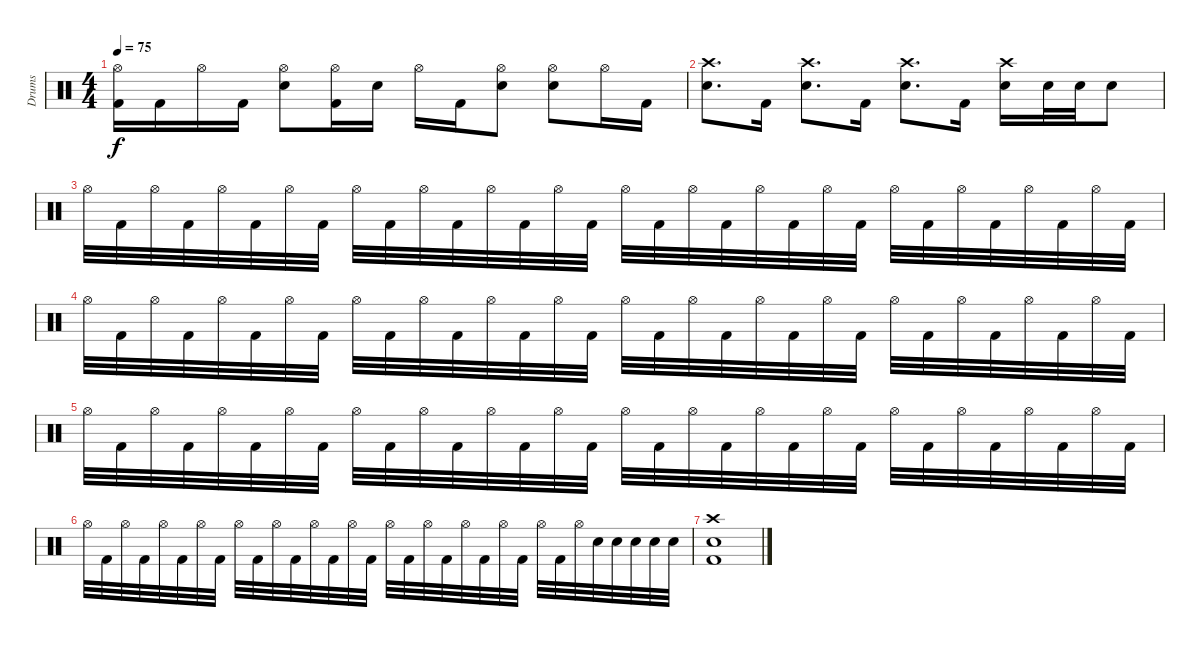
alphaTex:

\track ("Drums" "Drums") {instrument percussion}
\staff {score}
\articulation defaults
\ts (4 4)
\tempo 75
\clef neutral
\ks c
("Hi-Hat (open)" "Kick (hit) 2").16{dy f} "Kick (hit) 2".16 "Hi-Hat (open)".16 "Kick (hit) 2".16 ("Hi-Hat (open)" "Snare (hit) 2").8 ("Hi-Hat (open)" "Kick (hit) 2").16 "Snare (hit) 2".16 "Hi-Hat (open)".16 "Kick (hit) 2".16 ("Hi-Hat (open)" "Snare (hit) 2").8 ("Hi-Hat (open)" "Snare (hit) 2").8 "Hi-Hat (open)".16 "Kick (hit) 2".16 |
("Crash high (hit)" "Snare (hit) 2").8{d} "Kick (hit) 2".16 ("Crash high (hit)" "Snare (hit) 2").8{d} "Kick (hit) 2".16 ("Crash high (hit)" "Snare (hit) 2").8{d} "Kick (hit) 2".16 ("Crash high (hit)" "Snare (hit) 2").16 "Snare (hit) 2".32 "Snare (hit) 2".32 "Snare (hit) 2".8 |
"Hi-Hat (open)".32 "Kick (hit) 2".32 "Hi-Hat (open)".32 "Kick (hit) 2".32 "Hi-Hat (open)".32 "Kick (hit) 2".32 "Hi-Hat (open)".32 "Kick (hit) 2".32 "Hi-Hat (open)".32 "Kick (hit) 2".32 "Hi-Hat (open)".32 "Kick (hit) 2".32 "Hi-Hat (open)".32 "Kick (hit) 2".32 "Hi-Hat (open)".32 "Kick (hit) 2".32 "Hi-Hat (open)".32 "Kick (hit) 2".32 "Hi-Hat (open)".32 "Kick (hit) 2".32 "Hi-Hat (open)".32 "Kick (hit) 2".32 "Hi-Hat (open)".32 "Kick (hit) 2".32 "Hi-Hat (open)".32 "Kick (hit) 2".32 "Hi-Hat (open)".32 "Kick (hit) 2".32 "Hi-Hat (open)".32 "Kick (hit) 2".32 "Hi-Hat (open)".32 "Kick (hit) 2".32 |
"Hi-Hat (open)".32 "Kick (hit) 2".32 "Hi-Hat (open)".32 "Kick (hit) 2".32 "Hi-Hat (open)".32 "Kick (hit) 2".32 "Hi-Hat (open)".32 "Kick (hit) 2".32 "Hi-Hat (open)".32 "Kick (hit) 2".32 "Hi-Hat (open)".32 "Kick (hit) 2".32 "Hi-Hat (open)".32 "Kick (hit) 2".32 "Hi-Hat (open)".32 "Kick (hit) 2".32 "Hi-Hat (open)".32 "Kick (hit) 2".32 "Hi-Hat (open)".32 "Kick (hit) 2".32 "Hi-Hat (open)".32 "Kick (hit) 2".32 "Hi-Hat (open)".32 "Kick (hit) 2".32 "Hi-Hat (open)".32 "Kick (hit) 2".32 "Hi-Hat (open)".32 "Kick (hit) 2".32 "Hi-Hat (open)".32 "Kick (hit) 2".32 "Hi-Hat (open)".32 "Kick (hit) 2".32 |
"Hi-Hat (open)".32 "Kick (hit) 2".32 "Hi-Hat (open)".32 "Kick (hit) 2".32 "Hi-Hat (open)".32 "Kick (hit) 2".32 "Hi-Hat (open)".32 "Kick (hit) 2".32 "Hi-Hat (open)".32 "Kick (hit) 2".32 "Hi-Hat (open)".32 "Kick (hit) 2".32 "Hi-Hat (open)".32 "Kick (hit) 2".32 "Hi-Hat (open)".32 "Kick (hit) 2".32 "Hi-Hat (open)".32 "Kick (hit) 2".32 "Hi-Hat (open)".32 "Kick (hit) 2".32 "Hi-Hat (open)".32 "Kick (hit) 2".32 "Hi-Hat (open)".32 "Kick (hit) 2".32 "Hi-Hat (open)".32 "Kick (hit) 2".32 "Hi-Hat (open)".32 "Kick (hit) 2".32 "Hi-Hat (open)".32 "Kick (hit) 2".32 "Hi-Hat (open)".32 "Kick (hit) 2".32 |
"Hi-Hat (open)".32 "Kick (hit) 2".32 "Hi-Hat (open)".32 "Kick (hit) 2".32 "Hi-Hat (open)".32 "Kick (hit) 2".32 "Hi-Hat (open)".32 "Kick (hit) 2".32 "Hi-Hat (open)".32 "Kick (hit) 2".32 "Hi-Hat (open)".32 "Kick (hit) 2".32 "Hi-Hat (open)".32 "Kick (hit) 2".32 "Hi-Hat (open)".32 "Kick (hit) 2".32 "Hi-Hat (open)".32 "Kick (hit) 2".32 "Hi-Hat (open)".32 "Kick (hit) 2".32 "Hi-Hat (open)".32 "Kick (hit) 2".32 "Hi-Hat (open)".32 "Kick (hit) 2".32 "Hi-Hat (open)".32 "Kick (hit) 2".32 "Hi-Hat (open)".32 "Snare (hit) 2".32 "Snare (hit) 2".32 "Snare (hit) 2".32 "Snare (hit) 2".32 "Snare (hit) 2".32 |
("Crash high (hit)" "Snare (hit) 2" "Kick (hit) 2").1
